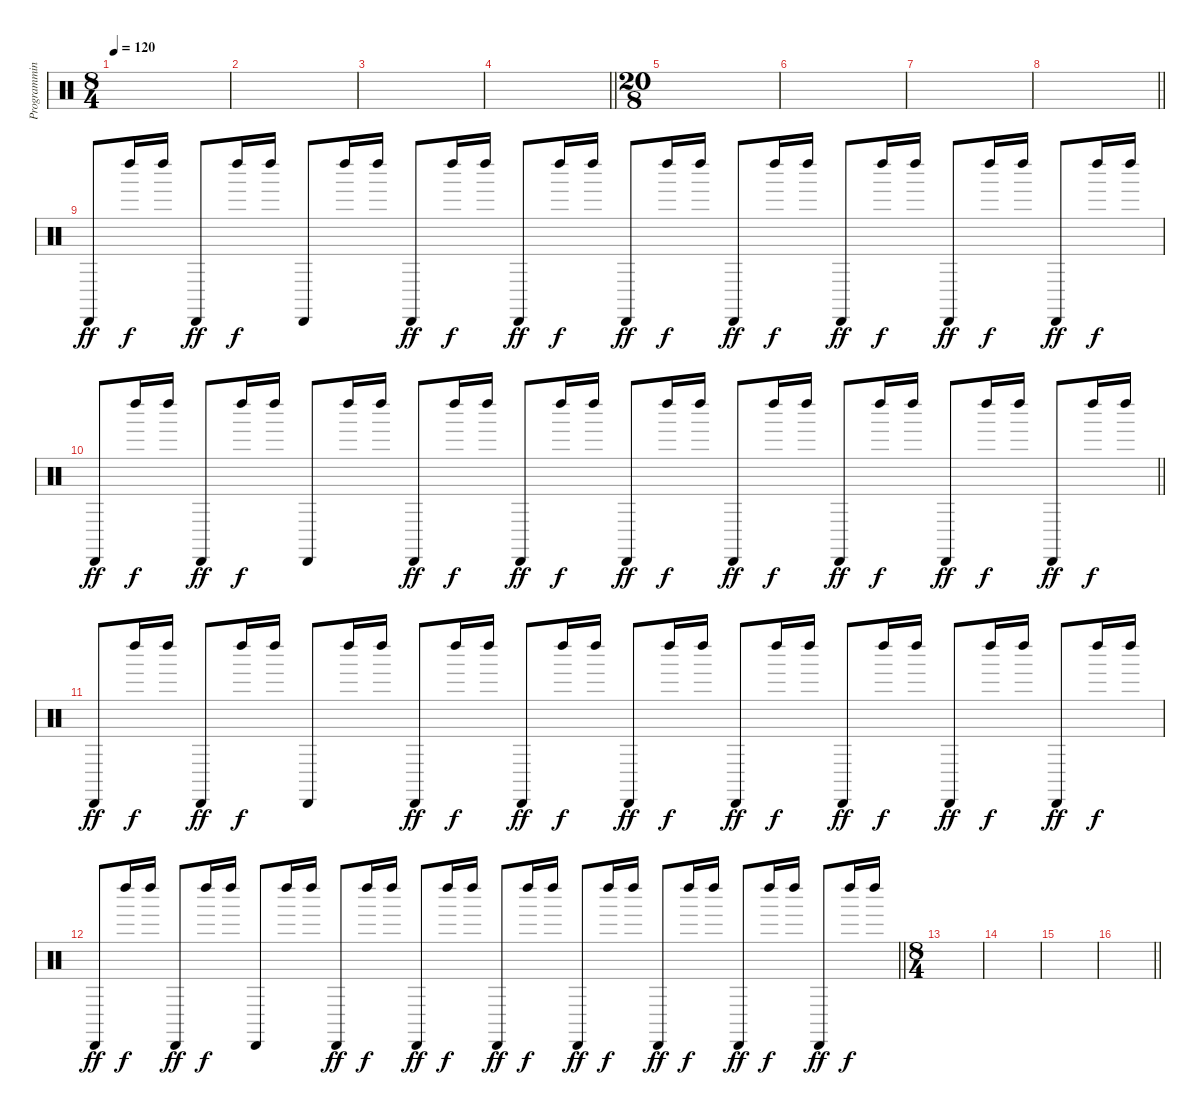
\track ("Programming" "Programmin") {instrument percussion}
\staff {score}
\articulation defaults
\ts (8 4)
\section ("" "")
\tempo 120
\clef neutral
\ks c
|
|
|
\barLineRight lightlight
|
\ts (20 8)
\section ("" "")
|
|
|
\barLineRight lightlight
|
\section ("" "")
"Cabasa (hit)".8{dy ff} "Left Maraca (hit)".16{dy f} "Left Maraca (hit)".16 "Cabasa (hit)".8{dy ff} "Left Maraca (hit)".16{dy f} "Left Maraca (hit)".16 "Cabasa (hit)".8 "Left Maraca (hit)".16 "Left Maraca (hit)".16 "Cabasa (hit)".8{dy ff} "Left Maraca (hit)".16{dy f} "Left Maraca (hit)".16 "Cabasa (hit)".8{dy ff} "Left Maraca (hit)".16{dy f} "Left Maraca (hit)".16 "Cabasa (hit)".8{dy ff} "Left Maraca (hit)".16{dy f} "Left Maraca (hit)".16 "Cabasa (hit)".8{dy ff} "Left Maraca (hit)".16{dy f} "Left Maraca (hit)".16 "Cabasa (hit)".8{dy ff} "Left Maraca (hit)".16{dy f} "Left Maraca (hit)".16 "Cabasa (hit)".8{dy ff} "Left Maraca (hit)".16{dy f} "Left Maraca (hit)".16 "Cabasa (hit)".8{dy ff} "Left Maraca (hit)".16{dy f} "Left Maraca (hit)".16 |
\barLineRight lightlight "Cabasa (hit)".8{dy ff} "Left Maraca (hit)".16{dy f} "Left Maraca (hit)".16 "Cabasa (hit)".8{dy ff} "Left Maraca (hit)".16{dy f} "Left Maraca (hit)".16 "Cabasa (hit)".8 "Left Maraca (hit)".16 "Left Maraca (hit)".16 "Cabasa (hit)".8{dy ff} "Left Maraca (hit)".16{dy f} "Left Maraca (hit)".16 "Cabasa (hit)".8{dy ff} "Left Maraca (hit)".16{dy f} "Left Maraca (hit)".16 "Cabasa (hit)".8{dy ff} "Left Maraca (hit)".16{dy f} "Left Maraca (hit)".16 "Cabasa (hit)".8{dy ff} "Left Maraca (hit)".16{dy f} "Left Maraca (hit)".16 "Cabasa (hit)".8{dy ff} "Left Maraca (hit)".16{dy f} "Left Maraca (hit)".16 "Cabasa (hit)".8{dy ff} "Left Maraca (hit)".16{dy f} "Left Maraca (hit)".16 "Cabasa (hit)".8{dy ff} "Left Maraca (hit)".16{dy f} "Left Maraca (hit)".16
|
\section ("" "")
"Cabasa (hit)".8{dy ff} "Left Maraca (hit)".16{dy f} "Left Maraca (hit)".16 "Cabasa (hit)".8{dy ff} "Left Maraca (hit)".16{dy f} "Left Maraca (hit)".16 "Cabasa (hit)".8 "Left Maraca (hit)".16 "Left Maraca (hit)".16 "Cabasa (hit)".8{dy ff} "Left Maraca (hit)".16{dy f} "Left Maraca (hit)".16 "Cabasa (hit)".8{dy ff} "Left Maraca (hit)".16{dy f} "Left Maraca (hit)".16 "Cabasa (hit)".8{dy ff} "Left Maraca (hit)".16{dy f} "Left Maraca (hit)".16 "Cabasa (hit)".8{dy ff} "Left Maraca (hit)".16{dy f} "Left Maraca (hit)".16 "Cabasa (hit)".8{dy ff} "Left Maraca (hit)".16{dy f} "Left Maraca (hit)".16 "Cabasa (hit)".8{dy ff} "Left Maraca (hit)".16{dy f} "Left Maraca (hit)".16 "Cabasa (hit)".8{dy ff} "Left Maraca (hit)".16{dy f} "Left Maraca (hit)".16 |
\barLineRight lightlight "Cabasa (hit)".8{dy ff} "Left Maraca (hit)".16{dy f} "Left Maraca (hit)".16 "Cabasa (hit)".8{dy ff} "Left Maraca (hit)".16{dy f} "Left Maraca (hit)".16 "Cabasa (hit)".8 "Left Maraca (hit)".16 "Left Maraca (hit)".16 "Cabasa (hit)".8{dy ff} "Left Maraca (hit)".16{dy f} "Left Maraca (hit)".16 "Cabasa (hit)".8{dy ff} "Left Maraca (hit)".16{dy f} "Left Maraca (hit)".16 "Cabasa (hit)".8{dy ff} "Left Maraca (hit)".16{dy f} "Left Maraca (hit)".16 "Cabasa (hit)".8{dy ff} "Left Maraca (hit)".16{dy f} "Left Maraca (hit)".16 "Cabasa (hit)".8{dy ff} "Left Maraca (hit)".16{dy f} "Left Maraca (hit)".16 "Cabasa (hit)".8{dy ff} "Left Maraca (hit)".16{dy f} "Left Maraca (hit)".16 "Cabasa (hit)".8{dy ff} "Left Maraca (hit)".16{dy f} "Left Maraca (hit)".16
|
\ts (8 4)
\section ("" "")
|
|
|
\barLineRight lightlight
